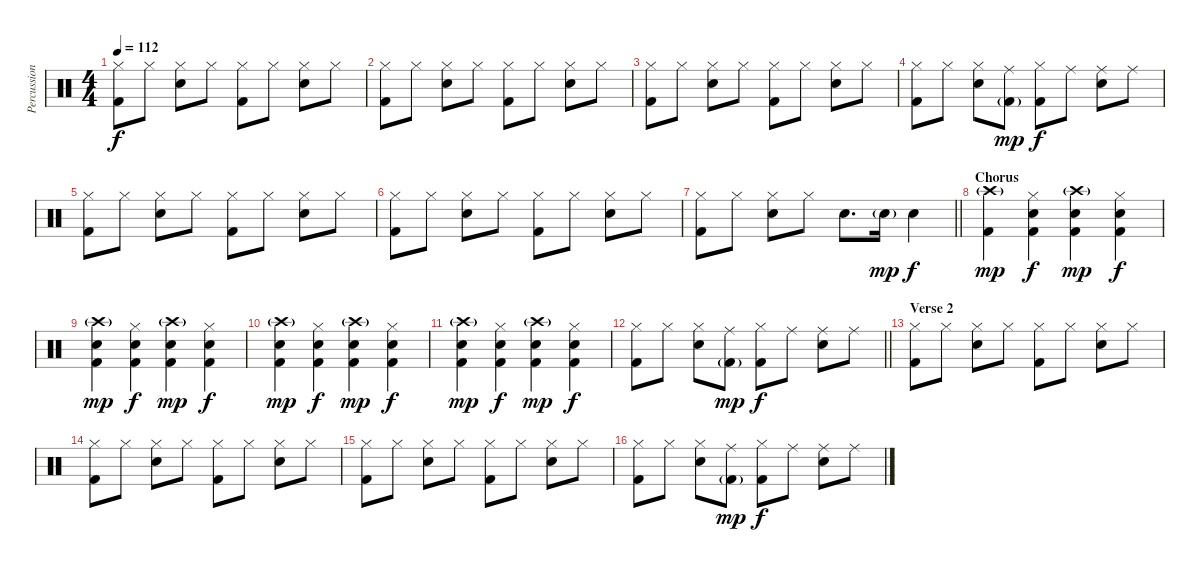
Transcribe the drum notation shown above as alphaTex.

\track ("Percussion" "Percussion") {instrument percussion}
\staff {score}
\articulation defaults
\ts (4 4)
\tempo 112
\clef neutral
\ks c
("Hi-Hat (closed)" "Kick (hit) 2").8{dy f} "Hi-Hat (closed)".8 ("Hi-Hat (closed)" "Snare (hit) 2").8 "Hi-Hat (closed)".8 ("Hi-Hat (closed)" "Kick (hit) 2").8 "Hi-Hat (closed)".8 ("Hi-Hat (closed)" "Snare (hit) 2").8 "Hi-Hat (closed)".8 |
("Hi-Hat (closed)" "Kick (hit) 2").8 "Hi-Hat (closed)".8 ("Hi-Hat (closed)" "Snare (hit) 2").8 "Hi-Hat (closed)".8 ("Hi-Hat (closed)" "Kick (hit) 2").8 "Hi-Hat (closed)".8 ("Hi-Hat (closed)" "Snare (hit) 2").8 "Hi-Hat (closed)".8 |
("Hi-Hat (closed)" "Kick (hit) 2").8 "Hi-Hat (closed)".8 ("Hi-Hat (closed)" "Snare (hit) 2").8 "Hi-Hat (closed)".8 ("Hi-Hat (closed)" "Kick (hit) 2").8 "Hi-Hat (closed)".8 ("Hi-Hat (closed)" "Snare (hit) 2").8 "Hi-Hat (closed)".8 |
("Hi-Hat (closed)" "Kick (hit) 2").8 "Hi-Hat (closed)".8 ("Hi-Hat (closed)" "Snare (hit) 2").8 ("Ride (middle)" "Kick (hit) 2"{g}).8{dy mp} ("Hi-Hat (closed)" "Kick (hit) 2").8{dy f} "Ride (middle)".8 ("Ride (middle)" "Snare (hit) 2").8 "Ride (middle)".8 |
("Hi-Hat (closed)" "Kick (hit) 2").8 "Hi-Hat (closed)".8 ("Hi-Hat (closed)" "Snare (hit) 2").8 "Hi-Hat (closed)".8 ("Hi-Hat (closed)" "Kick (hit) 2").8 "Hi-Hat (closed)".8 ("Hi-Hat (closed)" "Snare (hit) 2").8 "Hi-Hat (closed)".8 |
("Hi-Hat (closed)" "Kick (hit) 2").8 "Hi-Hat (closed)".8 ("Hi-Hat (closed)" "Snare (hit) 2").8 "Hi-Hat (closed)".8 ("Hi-Hat (closed)" "Kick (hit) 2").8 "Hi-Hat (closed)".8 ("Hi-Hat (closed)" "Snare (hit) 2").8 "Hi-Hat (closed)".8 |
\barLineRight lightlight
("Hi-Hat (closed)" "Kick (hit) 2").8 "Hi-Hat (closed)".8 ("Hi-Hat (closed)" "Snare (hit) 2").8 "Hi-Hat (closed)".8 "Snare (hit) 2".8{d} "Snare (hit) 2"{g}.16{dy mp} "Snare (hit) 2".4{dy f} |
\section ("" "Chorus")
("Crash high (hit)"{g} "Kick (hit) 2").4{dy mp} ("Hi-Hat (closed)" "Snare (hit) 2" "Kick (hit) 2").4{dy f} ("Crash high (hit)"{g} "Snare (hit) 2" "Kick (hit) 2").4{dy mp} ("Hi-Hat (closed)" "Snare (hit) 2" "Kick (hit) 2").4{dy f} |
("Crash high (hit)"{g} "Snare (hit) 2" "Kick (hit) 2").4{dy mp} ("Hi-Hat (closed)" "Snare (hit) 2" "Kick (hit) 2").4{dy f} ("Crash high (hit)"{g} "Snare (hit) 2" "Kick (hit) 2").4{dy mp} ("Hi-Hat (closed)" "Snare (hit) 2" "Kick (hit) 2").4{dy f} |
("Crash high (hit)"{g} "Snare (hit) 2" "Kick (hit) 2").4{dy mp} ("Hi-Hat (closed)" "Snare (hit) 2" "Kick (hit) 2").4{dy f} ("Crash high (hit)"{g} "Snare (hit) 2" "Kick (hit) 2").4{dy mp} ("Hi-Hat (closed)" "Snare (hit) 2" "Kick (hit) 2").4{dy f} |
("Crash high (hit)"{g} "Snare (hit) 2" "Kick (hit) 2").4{dy mp} ("Hi-Hat (closed)" "Snare (hit) 2" "Kick (hit) 2").4{dy f} ("Crash high (hit)"{g} "Snare (hit) 2" "Kick (hit) 2").4{dy mp} ("Hi-Hat (closed)" "Snare (hit) 2" "Kick (hit) 2").4{dy f} |
\barLineRight lightlight
("Hi-Hat (closed)" "Kick (hit) 2").8 "Hi-Hat (closed)".8 ("Hi-Hat (closed)" "Snare (hit) 2").8 ("Ride (middle)" "Kick (hit) 2"{g}).8{dy mp} ("Hi-Hat (closed)" "Kick (hit) 2").8{dy f} "Ride (middle)".8 ("Ride (middle)" "Snare (hit) 2").8 "Ride (middle)".8 |
\section ("" "Verse 2")
("Hi-Hat (closed)" "Kick (hit) 2").8 "Hi-Hat (closed)".8 ("Hi-Hat (closed)" "Snare (hit) 2").8 "Hi-Hat (closed)".8 ("Hi-Hat (closed)" "Kick (hit) 2").8 "Hi-Hat (closed)".8 ("Hi-Hat (closed)" "Snare (hit) 2").8 "Hi-Hat (closed)".8 |
("Hi-Hat (closed)" "Kick (hit) 2").8 "Hi-Hat (closed)".8 ("Hi-Hat (closed)" "Snare (hit) 2").8 "Hi-Hat (closed)".8 ("Hi-Hat (closed)" "Kick (hit) 2").8 "Hi-Hat (closed)".8 ("Hi-Hat (closed)" "Snare (hit) 2").8 "Hi-Hat (closed)".8 |
("Hi-Hat (closed)" "Kick (hit) 2").8 "Hi-Hat (closed)".8 ("Hi-Hat (closed)" "Snare (hit) 2").8 "Hi-Hat (closed)".8 ("Hi-Hat (closed)" "Kick (hit) 2").8 "Hi-Hat (closed)".8 ("Hi-Hat (closed)" "Snare (hit) 2").8 "Hi-Hat (closed)".8 |
("Hi-Hat (closed)" "Kick (hit) 2").8 "Hi-Hat (closed)".8 ("Hi-Hat (closed)" "Snare (hit) 2").8 ("Ride (middle)" "Kick (hit) 2"{g}).8{dy mp} ("Hi-Hat (closed)" "Kick (hit) 2").8{dy f} "Ride (middle)".8 ("Ride (middle)" "Snare (hit) 2").8 "Ride (middle)".8
